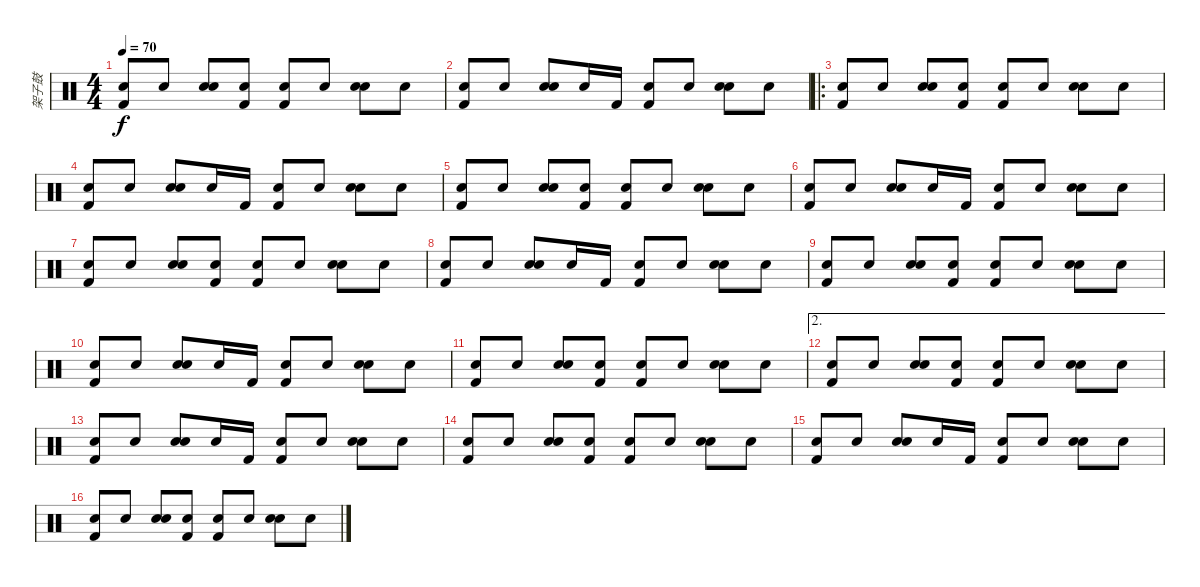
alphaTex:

\track ("架子鼓" "架子鼓") {instrument percussion}
\staff {score}
\articulation defaults
\ts (4 4)
\tempo 70
\clef neutral
\ks c
("Snare (hit)" "Kick (hit) 2").8{dy f} "Snare (hit)".8 ("Snare (hit)" "Snare (hit) 2").8 ("Snare (hit)" "Kick (hit) 2").8 ("Snare (hit)" "Kick (hit) 2").8 "Snare (hit)".8 ("Snare (hit)" "Snare (hit) 2").8 "Snare (hit)".8 |
("Snare (hit)" "Kick (hit) 2").8 "Snare (hit)".8 ("Snare (hit)" "Snare (hit) 2").8 "Snare (hit)".16 "Kick (hit) 2".16 ("Snare (hit)" "Kick (hit) 2").8 "Snare (hit)".8 ("Snare (hit)" "Snare (hit) 2").8 "Snare (hit)".8 |
\ro
("Snare (hit)" "Kick (hit) 2").8 "Snare (hit)".8 ("Snare (hit)" "Snare (hit) 2").8 ("Snare (hit)" "Kick (hit) 2").8 ("Snare (hit)" "Kick (hit) 2").8 "Snare (hit)".8 ("Snare (hit)" "Snare (hit) 2").8 "Snare (hit)".8 |
("Snare (hit)" "Kick (hit) 2").8 "Snare (hit)".8 ("Snare (hit)" "Snare (hit) 2").8 "Snare (hit)".16 "Kick (hit) 2".16 ("Snare (hit)" "Kick (hit) 2").8 "Snare (hit)".8 ("Snare (hit)" "Snare (hit) 2").8 "Snare (hit)".8 |
("Snare (hit)" "Kick (hit) 2").8 "Snare (hit)".8 ("Snare (hit)" "Snare (hit) 2").8 ("Snare (hit)" "Kick (hit) 2").8 ("Snare (hit)" "Kick (hit) 2").8 "Snare (hit)".8 ("Snare (hit)" "Snare (hit) 2").8 "Snare (hit)".8 |
("Snare (hit)" "Kick (hit) 2").8 "Snare (hit)".8 ("Snare (hit)" "Snare (hit) 2").8 "Snare (hit)".16 "Kick (hit) 2".16 ("Snare (hit)" "Kick (hit) 2").8 "Snare (hit)".8 ("Snare (hit)" "Snare (hit) 2").8 "Snare (hit)".8 |
("Snare (hit)" "Kick (hit) 2").8 "Snare (hit)".8 ("Snare (hit)" "Snare (hit) 2").8 ("Snare (hit)" "Kick (hit) 2").8 ("Snare (hit)" "Kick (hit) 2").8 "Snare (hit)".8 ("Snare (hit)" "Snare (hit) 2").8 "Snare (hit)".8 |
("Snare (hit)" "Kick (hit) 2").8 "Snare (hit)".8 ("Snare (hit)" "Snare (hit) 2").8 "Snare (hit)".16 "Kick (hit) 2".16 ("Snare (hit)" "Kick (hit) 2").8 "Snare (hit)".8 ("Snare (hit)" "Snare (hit) 2").8 "Snare (hit)".8 |
("Snare (hit)" "Kick (hit) 2").8 "Snare (hit)".8 ("Snare (hit)" "Snare (hit) 2").8 ("Snare (hit)" "Kick (hit) 2").8 ("Snare (hit)" "Kick (hit) 2").8 "Snare (hit)".8 ("Snare (hit)" "Snare (hit) 2").8 "Snare (hit)".8 |
("Snare (hit)" "Kick (hit) 2").8 "Snare (hit)".8 ("Snare (hit)" "Snare (hit) 2").8 "Snare (hit)".16 "Kick (hit) 2".16 ("Snare (hit)" "Kick (hit) 2").8 "Snare (hit)".8 ("Snare (hit)" "Snare (hit) 2").8 "Snare (hit)".8 |
("Snare (hit)" "Kick (hit) 2").8 "Snare (hit)".8 ("Snare (hit)" "Snare (hit) 2").8 ("Snare (hit)" "Kick (hit) 2").8 ("Snare (hit)" "Kick (hit) 2").8 "Snare (hit)".8 ("Snare (hit)" "Snare (hit) 2").8 "Snare (hit)".8 |
\ae 2
("Snare (hit)" "Kick (hit) 2").8 "Snare (hit)".8 ("Snare (hit)" "Snare (hit) 2").8 ("Snare (hit)" "Kick (hit) 2").8 ("Snare (hit)" "Kick (hit) 2").8 "Snare (hit)".8 ("Snare (hit)" "Snare (hit) 2").8 "Snare (hit)".8 |
("Snare (hit)" "Kick (hit) 2").8 "Snare (hit)".8 ("Snare (hit)" "Snare (hit) 2").8 "Snare (hit)".16 "Kick (hit) 2".16 ("Snare (hit)" "Kick (hit) 2").8 "Snare (hit)".8 ("Snare (hit)" "Snare (hit) 2").8 "Snare (hit)".8 |
("Snare (hit)" "Kick (hit) 2").8 "Snare (hit)".8 ("Snare (hit)" "Snare (hit) 2").8 ("Snare (hit)" "Kick (hit) 2").8 ("Snare (hit)" "Kick (hit) 2").8 "Snare (hit)".8 ("Snare (hit)" "Snare (hit) 2").8 "Snare (hit)".8 |
("Snare (hit)" "Kick (hit) 2").8 "Snare (hit)".8 ("Snare (hit)" "Snare (hit) 2").8 "Snare (hit)".16 "Kick (hit) 2".16 ("Snare (hit)" "Kick (hit) 2").8 "Snare (hit)".8 ("Snare (hit)" "Snare (hit) 2").8 "Snare (hit)".8 |
("Snare (hit)" "Kick (hit) 2").8 "Snare (hit)".8 ("Snare (hit)" "Snare (hit) 2").8 ("Snare (hit)" "Kick (hit) 2").8 ("Snare (hit)" "Kick (hit) 2").8 "Snare (hit)".8 ("Snare (hit)" "Snare (hit) 2").8 "Snare (hit)".8
